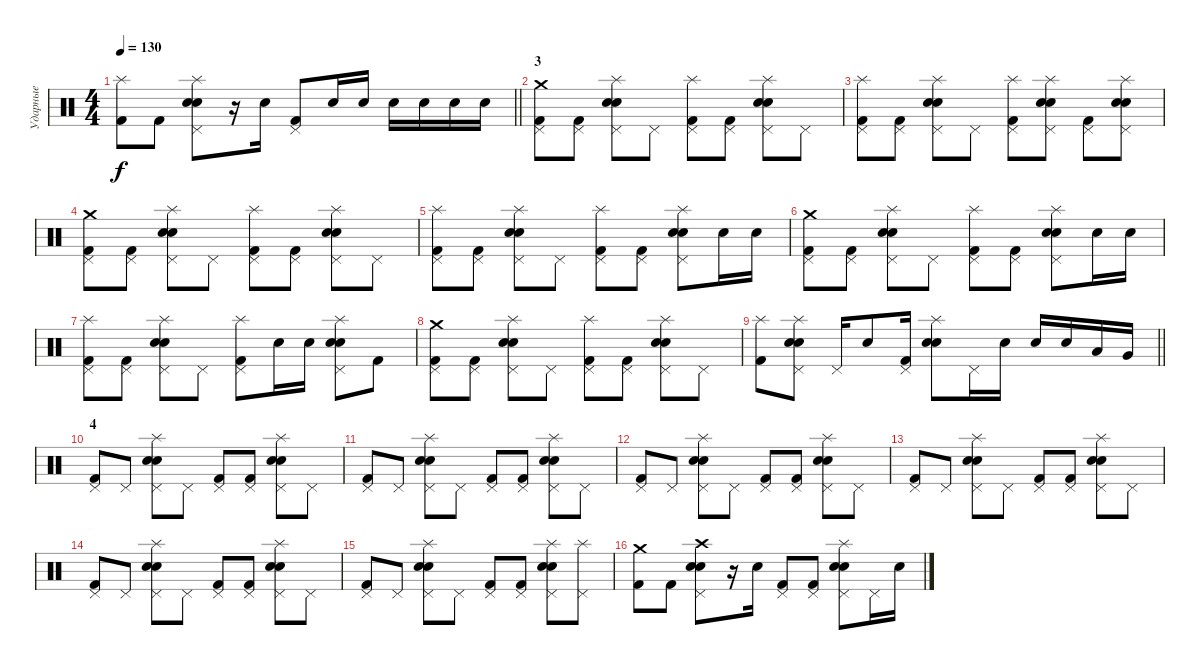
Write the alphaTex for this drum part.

\track ("Ударные" "Ударные") {instrument percussion}
\staff {score}
\articulation defaults
\ts (4 4)
\tempo 130
\clef neutral
\barLineRight lightlight
\ks c
("Splash (hit)" "Kick (hit) 2").8{dy f} "Kick (hit) 2".8 ("Splash (hit)" "Pedal Hi-Hat (hit)" "Electric Snare (hit)" "Snare (hit) 2").8 r.16 "Electric Snare (hit)".16 ("Pedal Hi-Hat (hit)" "Kick (hit) 2").8 "Electric Snare (hit)".16 "Electric Snare (hit)".16 "Electric Snare (hit)".16 "Electric Snare (hit)".16 "Electric Snare (hit)".16 "Electric Snare (hit)".16 |
\section ("" "3")
("Crash medium (hit)" "Pedal Hi-Hat (hit)" "Kick (hit) 2").8 ("Pedal Hi-Hat (hit)" "Kick (hit) 2").8 ("Splash (hit)" "Pedal Hi-Hat (hit)" "Electric Snare (hit)" "Snare (hit) 2").8 "Pedal Hi-Hat (hit)".8 ("Splash (hit)" "Pedal Hi-Hat (hit)" "Kick (hit) 2").8 ("Pedal Hi-Hat (hit)" "Kick (hit) 2").8 ("Splash (hit)" "Pedal Hi-Hat (hit)" "Electric Snare (hit)" "Snare (hit) 2").8 "Pedal Hi-Hat (hit)".8 |
("Splash (hit)" "Pedal Hi-Hat (hit)" "Kick (hit) 2").8 ("Pedal Hi-Hat (hit)" "Kick (hit) 2").8 ("Splash (hit)" "Pedal Hi-Hat (hit)" "Electric Snare (hit)" "Snare (hit) 2").8 "Pedal Hi-Hat (hit)".8 ("Splash (hit)" "Pedal Hi-Hat (hit)" "Kick (hit) 2").8 ("Splash (hit)" "Pedal Hi-Hat (hit)" "Electric Snare (hit)" "Snare (hit) 2").8 ("Pedal Hi-Hat (hit)" "Kick (hit) 2").8 ("Splash (hit)" "Pedal Hi-Hat (hit)" "Electric Snare (hit)" "Snare (hit) 2").8 |
("Crash medium (hit)" "Pedal Hi-Hat (hit)" "Kick (hit) 2").8 ("Pedal Hi-Hat (hit)" "Kick (hit) 2").8 ("Splash (hit)" "Pedal Hi-Hat (hit)" "Electric Snare (hit)" "Snare (hit) 2").8 "Pedal Hi-Hat (hit)".8 ("Splash (hit)" "Pedal Hi-Hat (hit)" "Kick (hit) 2").8 ("Pedal Hi-Hat (hit)" "Kick (hit) 2").8 ("Splash (hit)" "Pedal Hi-Hat (hit)" "Electric Snare (hit)" "Snare (hit) 2").8 "Pedal Hi-Hat (hit)".8 |
("Splash (hit)" "Pedal Hi-Hat (hit)" "Kick (hit) 2").8 ("Pedal Hi-Hat (hit)" "Kick (hit) 2").8 ("Splash (hit)" "Pedal Hi-Hat (hit)" "Electric Snare (hit)" "Snare (hit) 2").8 "Pedal Hi-Hat (hit)".8 ("Splash (hit)" "Pedal Hi-Hat (hit)" "Kick (hit) 2").8 ("Pedal Hi-Hat (hit)" "Kick (hit) 2").8 ("Splash (hit)" "Pedal Hi-Hat (hit)" "Electric Snare (hit)" "Snare (hit) 2").8 "Electric Snare (hit)".16 "Electric Snare (hit)".16 |
("Crash medium (hit)" "Pedal Hi-Hat (hit)" "Kick (hit) 2").8 ("Pedal Hi-Hat (hit)" "Kick (hit) 2").8 ("Splash (hit)" "Pedal Hi-Hat (hit)" "Electric Snare (hit)" "Snare (hit) 2").8 "Pedal Hi-Hat (hit)".8 ("Splash (hit)" "Pedal Hi-Hat (hit)" "Kick (hit) 2").8 ("Pedal Hi-Hat (hit)" "Kick (hit) 2").8 ("Splash (hit)" "Pedal Hi-Hat (hit)" "Electric Snare (hit)" "Snare (hit) 2").8 "Electric Snare (hit)".16 "Electric Snare (hit)".16 |
("Splash (hit)" "Pedal Hi-Hat (hit)" "Kick (hit) 2").8 ("Pedal Hi-Hat (hit)" "Kick (hit) 2").8 ("Splash (hit)" "Pedal Hi-Hat (hit)" "Electric Snare (hit)" "Snare (hit) 2").8 "Pedal Hi-Hat (hit)".8 ("Splash (hit)" "Pedal Hi-Hat (hit)" "Kick (hit) 2").8 "Electric Snare (hit)".16 "Electric Snare (hit)".16 ("Splash (hit)" "Pedal Hi-Hat (hit)" "Electric Snare (hit)" "Snare (hit) 2").8 "Kick (hit) 2".8 |
("Crash medium (hit)" "Pedal Hi-Hat (hit)" "Kick (hit) 2").8 ("Pedal Hi-Hat (hit)" "Kick (hit) 2").8 ("Splash (hit)" "Pedal Hi-Hat (hit)" "Electric Snare (hit)" "Snare (hit) 2").8 "Pedal Hi-Hat (hit)".8 ("Splash (hit)" "Pedal Hi-Hat (hit)" "Kick (hit) 2").8 ("Pedal Hi-Hat (hit)" "Kick (hit) 2").8 ("Splash (hit)" "Pedal Hi-Hat (hit)" "Electric Snare (hit)" "Snare (hit) 2").8 "Pedal Hi-Hat (hit)".8 |
\barLineRight lightlight
("Splash (hit)" "Kick (hit) 2").8 ("Splash (hit)" "Pedal Hi-Hat (hit)" "Electric Snare (hit)" "Snare (hit) 2").8 "Pedal Hi-Hat (hit)".16 "Electric Snare (hit)".8 ("Pedal Hi-Hat (hit)" "Kick (hit) 2").16 ("Splash (hit)" "Electric Snare (hit)" "Snare (hit) 2").8 "Pedal Hi-Hat (hit)".16 "Electric Snare (hit)".16 "Electric Snare (hit)".16 "Electric Snare (hit)".16 "Low Tom (hit)".16 "Very Low Tom (hit)".16 |
\section ("" "4")
("Pedal Hi-Hat (hit)" "Kick (hit) 2").8 "Pedal Hi-Hat (hit)".8 ("Splash (hit)" "Pedal Hi-Hat (hit)" "Electric Snare (hit)" "Snare (hit) 2").8 "Pedal Hi-Hat (hit)".8 ("Pedal Hi-Hat (hit)" "Kick (hit) 2").8 ("Pedal Hi-Hat (hit)" "Kick (hit) 2").8 ("Splash (hit)" "Pedal Hi-Hat (hit)" "Electric Snare (hit)" "Snare (hit) 2").8 "Pedal Hi-Hat (hit)".8 |
("Pedal Hi-Hat (hit)" "Kick (hit) 2").8 "Pedal Hi-Hat (hit)".8 ("Splash (hit)" "Pedal Hi-Hat (hit)" "Electric Snare (hit)" "Snare (hit) 2").8 "Pedal Hi-Hat (hit)".8 ("Pedal Hi-Hat (hit)" "Kick (hit) 2").8 ("Pedal Hi-Hat (hit)" "Kick (hit) 2").8 ("Splash (hit)" "Pedal Hi-Hat (hit)" "Electric Snare (hit)" "Snare (hit) 2").8 "Pedal Hi-Hat (hit)".8 |
("Pedal Hi-Hat (hit)" "Kick (hit) 2").8 "Pedal Hi-Hat (hit)".8 ("Splash (hit)" "Pedal Hi-Hat (hit)" "Electric Snare (hit)" "Snare (hit) 2").8 "Pedal Hi-Hat (hit)".8 ("Pedal Hi-Hat (hit)" "Kick (hit) 2").8 ("Pedal Hi-Hat (hit)" "Kick (hit) 2").8 ("Splash (hit)" "Pedal Hi-Hat (hit)" "Electric Snare (hit)" "Snare (hit) 2").8 "Pedal Hi-Hat (hit)".8 |
("Pedal Hi-Hat (hit)" "Kick (hit) 2").8 "Pedal Hi-Hat (hit)".8 ("Splash (hit)" "Pedal Hi-Hat (hit)" "Electric Snare (hit)" "Snare (hit) 2").8 "Pedal Hi-Hat (hit)".8 ("Pedal Hi-Hat (hit)" "Kick (hit) 2").8 ("Pedal Hi-Hat (hit)" "Kick (hit) 2").8 ("Splash (hit)" "Pedal Hi-Hat (hit)" "Electric Snare (hit)" "Snare (hit) 2").8 "Pedal Hi-Hat (hit)".8 |
("Pedal Hi-Hat (hit)" "Kick (hit) 2").8 "Pedal Hi-Hat (hit)".8 ("Splash (hit)" "Pedal Hi-Hat (hit)" "Electric Snare (hit)" "Snare (hit) 2").8 "Pedal Hi-Hat (hit)".8 ("Pedal Hi-Hat (hit)" "Kick (hit) 2").8 ("Pedal Hi-Hat (hit)" "Kick (hit) 2").8 ("Splash (hit)" "Pedal Hi-Hat (hit)" "Electric Snare (hit)" "Snare (hit) 2").8 "Pedal Hi-Hat (hit)".8 |
("Pedal Hi-Hat (hit)" "Kick (hit) 2").8 "Pedal Hi-Hat (hit)".8 ("Splash (hit)" "Pedal Hi-Hat (hit)" "Electric Snare (hit)" "Snare (hit) 2").8 "Pedal Hi-Hat (hit)".8 ("Pedal Hi-Hat (hit)" "Kick (hit) 2").8 ("Pedal Hi-Hat (hit)" "Kick (hit) 2").8 ("Splash (hit)" "Pedal Hi-Hat (hit)" "Electric Snare (hit)" "Snare (hit) 2").8 ("Splash (hit)" "Pedal Hi-Hat (hit)").8 |
("Crash medium (hit)" "Kick (hit) 2").8 "Kick (hit) 2".8 ("Crash high (hit)" "Pedal Hi-Hat (hit)" "Electric Snare (hit)" "Snare (hit) 2").8 r.16 "Electric Snare (hit)".16 ("Pedal Hi-Hat (hit)" "Kick (hit) 2").8 ("Pedal Hi-Hat (hit)" "Kick (hit) 2").8 ("Splash (hit)" "Pedal Hi-Hat (hit)" "Electric Snare (hit)" "Snare (hit) 2").8 "Pedal Hi-Hat (hit)".16 "Electric Snare (hit)".16
